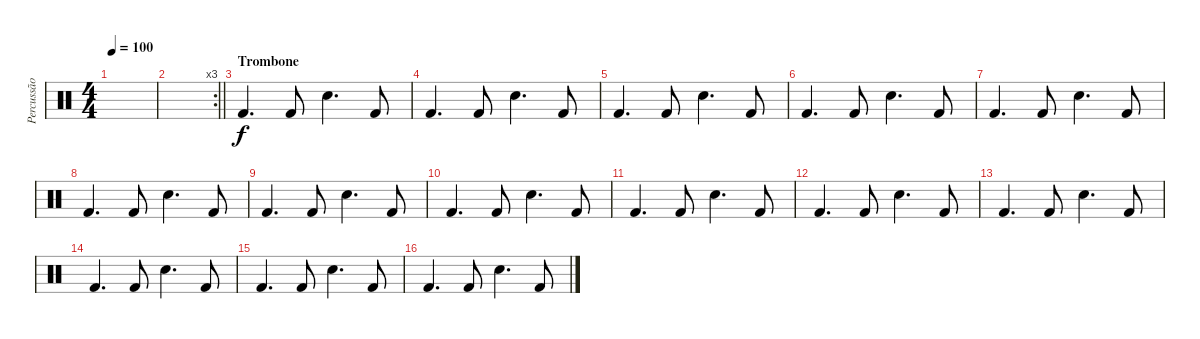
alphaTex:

\track ("Percussão" "Percussão") {instrument percussion}
\staff {score}
\articulation defaults
\ts (4 4)
\tempo 100
\clef neutral
\ks c
|
\rc 3
\barLineRight lightlight
|
\section ("" "Trombone")
"Kick (hit) 2".4{d} "Kick (hit) 2".8 "Electric Snare (hit)".4{d} "Kick (hit) 2".8 |
"Kick (hit) 2".4{d} "Kick (hit) 2".8 "Electric Snare (hit)".4{d} "Kick (hit) 2".8 |
"Kick (hit) 2".4{d} "Kick (hit) 2".8 "Electric Snare (hit)".4{d} "Kick (hit) 2".8 |
"Kick (hit) 2".4{d} "Kick (hit) 2".8 "Electric Snare (hit)".4{d} "Kick (hit) 2".8 |
"Kick (hit) 2".4{d} "Kick (hit) 2".8 "Electric Snare (hit)".4{d} "Kick (hit) 2".8 |
"Kick (hit) 2".4{d} "Kick (hit) 2".8 "Electric Snare (hit)".4{d} "Kick (hit) 2".8 |
"Kick (hit) 2".4{d} "Kick (hit) 2".8 "Electric Snare (hit)".4{d} "Kick (hit) 2".8 |
"Kick (hit) 2".4{d} "Kick (hit) 2".8 "Electric Snare (hit)".4{d} "Kick (hit) 2".8 |
"Kick (hit) 2".4{d} "Kick (hit) 2".8 "Electric Snare (hit)".4{d} "Kick (hit) 2".8 |
"Kick (hit) 2".4{d} "Kick (hit) 2".8 "Electric Snare (hit)".4{d} "Kick (hit) 2".8 |
"Kick (hit) 2".4{d} "Kick (hit) 2".8 "Electric Snare (hit)".4{d} "Kick (hit) 2".8 |
"Kick (hit) 2".4{d} "Kick (hit) 2".8 "Electric Snare (hit)".4{d} "Kick (hit) 2".8 |
"Kick (hit) 2".4{d} "Kick (hit) 2".8 "Electric Snare (hit)".4{d} "Kick (hit) 2".8 |
"Kick (hit) 2".4{d} "Kick (hit) 2".8 "Electric Snare (hit)".4{d} "Kick (hit) 2".8
